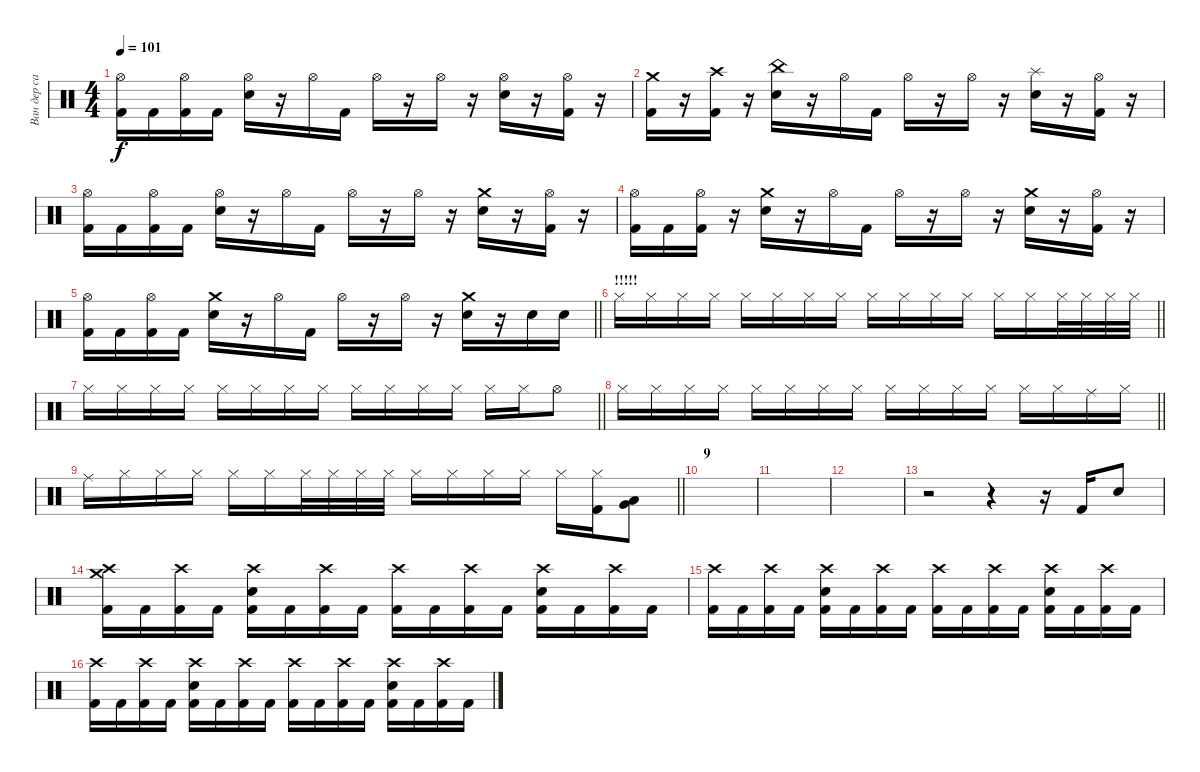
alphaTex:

\track ("Ван дер сар" "Ван дер са") {instrument percussion}
\staff {score}
\articulation defaults
\ts (4 4)
\tempo 101
\clef neutral
\ks c
("Hi-Hat (open)" "Kick (hit) 2").16{dy f} "Kick (hit) 2".16 ("Hi-Hat (open)" "Kick (hit) 2").16 "Kick (hit) 2".16 ("Hi-Hat (open)" "Snare (hit) 2").16 r.16 "Hi-Hat (open)".16 "Kick (hit) 2".16 "Hi-Hat (open)".16 r.16 "Hi-Hat (open)".16 r.16 ("Hi-Hat (open)" "Snare (hit) 2").16 r.16 ("Hi-Hat (open)" "Kick (hit) 2").16 r.16 |
("Crash medium (hit)" "Kick (hit) 2").16 r.16 ("Crash high (hit)" "Kick (hit) 2").16 r.16 ("China (hit)" "Snare (hit) 2").16 r.16 "Hi-Hat (open)".16 "Kick (hit) 2".16 "Hi-Hat (open)".16 r.16 "Hi-Hat (open)".16 r.16 ("Splash (hit)" "Snare (hit) 2").16 r.16 ("Hi-Hat (open)" "Kick (hit) 2").16 r.16 |
("Hi-Hat (open)" "Kick (hit) 2").16 "Kick (hit) 2".16 ("Hi-Hat (open)" "Kick (hit) 2").16 "Kick (hit) 2".16 ("Hi-Hat (open)" "Snare (hit) 2").16 r.16 "Hi-Hat (open)".16 "Kick (hit) 2".16 "Hi-Hat (open)".16 r.16 "Hi-Hat (open)".16 r.16 ("Crash medium (hit)" "Snare (hit) 2").16 r.16 ("Hi-Hat (open)" "Kick (hit) 2").16 r.16 |
("Hi-Hat (open)" "Kick (hit) 2").16 "Kick (hit) 2".16 ("Hi-Hat (open)" "Kick (hit) 2").16 r.16 ("Crash medium (hit)" "Snare (hit) 2").16 r.16 "Hi-Hat (open)".16 "Kick (hit) 2".16 "Hi-Hat (open)".16 r.16 "Hi-Hat (open)".16 r.16 ("Crash medium (hit)" "Snare (hit) 2").16 r.16 ("Hi-Hat (open)" "Kick (hit) 2").16 r.16 |
\barLineRight lightlight
("Hi-Hat (open)" "Kick (hit) 2").16 "Kick (hit) 2".16 ("Hi-Hat (open)" "Kick (hit) 2").16 "Kick (hit) 2".16 ("Crash medium (hit)" "Snare (hit) 2").16 r.16 "Hi-Hat (open)".16 "Kick (hit) 2".16 "Hi-Hat (open)".16 r.16 "Hi-Hat (open)".16 r.16 ("Crash medium (hit)" "Snare (hit) 2").16 r.16 "Snare (hit) 2".16 "Snare (hit) 2".16 |
\section ("" "!!!!!")
\barLineRight lightlight "Hi-Hat (closed)".16 "Hi-Hat (closed)".16 "Hi-Hat (closed)".16 "Hi-Hat (closed)".16 "Hi-Hat (closed)".16 "Hi-Hat (closed)".16 "Hi-Hat (closed)".16 "Hi-Hat (closed)".16 "Hi-Hat (closed)".16 "Hi-Hat (closed)".16 "Hi-Hat (closed)".16 "Hi-Hat (closed)".16 "Hi-Hat (closed)".16 "Hi-Hat (closed)".16 "Hi-Hat (closed)".32 "Hi-Hat (closed)".32 "Hi-Hat (closed)".32 "Hi-Hat (closed)".32
|
\barLineRight lightlight "Hi-Hat (closed)".16 "Hi-Hat (closed)".16 "Hi-Hat (closed)".16 "Hi-Hat (closed)".16 "Hi-Hat (closed)".16 "Hi-Hat (closed)".16 "Hi-Hat (closed)".16 "Hi-Hat (closed)".16 "Hi-Hat (closed)".16 "Hi-Hat (closed)".16 "Hi-Hat (closed)".16 "Hi-Hat (closed)".16 "Hi-Hat (closed)".16 "Hi-Hat (closed)".16 "Hi-Hat (open)".8
|
\barLineRight lightlight "Hi-Hat (closed)".16 "Hi-Hat (closed)".16 "Hi-Hat (closed)".16 "Hi-Hat (closed)".16 "Hi-Hat (closed)".16 "Hi-Hat (closed)".16 "Hi-Hat (closed)".16 "Hi-Hat (closed)".16 "Hi-Hat (closed)".16 "Hi-Hat (closed)".16 "Hi-Hat (closed)".16 "Hi-Hat (closed)".16 "Hi-Hat (closed)".16 "Hi-Hat (closed)".16 "Ride (middle)".16 "Hi-Hat (closed)".16
|
\barLineRight lightlight "Ride (middle)".16 "Hi-Hat (closed)".16 "Hi-Hat (closed)".16 "Hi-Hat (closed)".16 "Hi-Hat (closed)".16 "Hi-Hat (closed)".16 "Hi-Hat (closed)".32 "Hi-Hat (closed)".32 "Hi-Hat (closed)".32 "Hi-Hat (closed)".32 "Hi-Hat (closed)".16 "Hi-Hat (closed)".16 "Hi-Hat (closed)".16 "Hi-Hat (closed)".16 "Hi-Hat (closed)".16
("Hi-Hat (closed)" "Kick (hit) 2").16 ("Very Low Tom (hit)" "Low Tom (hit)").8 |
\section ("" "9")
|
|
|
r.2 r.4 r.16 "Kick (hit) 2".16 "Snare (hit) 2".8 |
("Crash high (hit)" "Crash medium (hit)" "Kick (hit) 2").16 "Kick (hit) 2".16 ("Crash high (hit)" "Kick (hit) 2").16 "Kick (hit) 2".16 ("Crash high (hit)" "Snare (hit) 2" "Kick (hit) 2").16 "Kick (hit) 2".16 ("Crash high (hit)" "Kick (hit) 2").16 "Kick (hit) 2".16 ("Crash high (hit)" "Kick (hit) 2").16 "Kick (hit) 2".16 ("Crash high (hit)" "Kick (hit) 2").16 "Kick (hit) 2".16 ("Crash high (hit)" "Snare (hit) 2" "Kick (hit) 2").16 "Kick (hit) 2".16 ("Crash high (hit)" "Kick (hit) 2").16 "Kick (hit) 2".16 |
("Crash high (hit)" "Kick (hit) 2").16 "Kick (hit) 2".16 ("Crash high (hit)" "Kick (hit) 2").16 "Kick (hit) 2".16 ("Crash high (hit)" "Snare (hit) 2" "Kick (hit) 2").16 "Kick (hit) 2".16 ("Crash high (hit)" "Kick (hit) 2").16 "Kick (hit) 2".16 ("Crash high (hit)" "Kick (hit) 2").16 "Kick (hit) 2".16 ("Crash high (hit)" "Kick (hit) 2").16 "Kick (hit) 2".16 ("Crash high (hit)" "Snare (hit) 2" "Kick (hit) 2").16 "Kick (hit) 2".16 ("Crash high (hit)" "Kick (hit) 2").16 "Kick (hit) 2".16 |
("Crash high (hit)" "Kick (hit) 2").16 "Kick (hit) 2".16 ("Crash high (hit)" "Kick (hit) 2").16 "Kick (hit) 2".16 ("Crash high (hit)" "Snare (hit) 2" "Kick (hit) 2").16 "Kick (hit) 2".16 ("Crash high (hit)" "Kick (hit) 2").16 "Kick (hit) 2".16 ("Crash high (hit)" "Kick (hit) 2").16 "Kick (hit) 2".16 ("Crash high (hit)" "Kick (hit) 2").16 "Kick (hit) 2".16 ("Crash high (hit)" "Snare (hit) 2" "Kick (hit) 2").16 "Kick (hit) 2".16 ("Crash high (hit)" "Kick (hit) 2").16 "Kick (hit) 2".16
